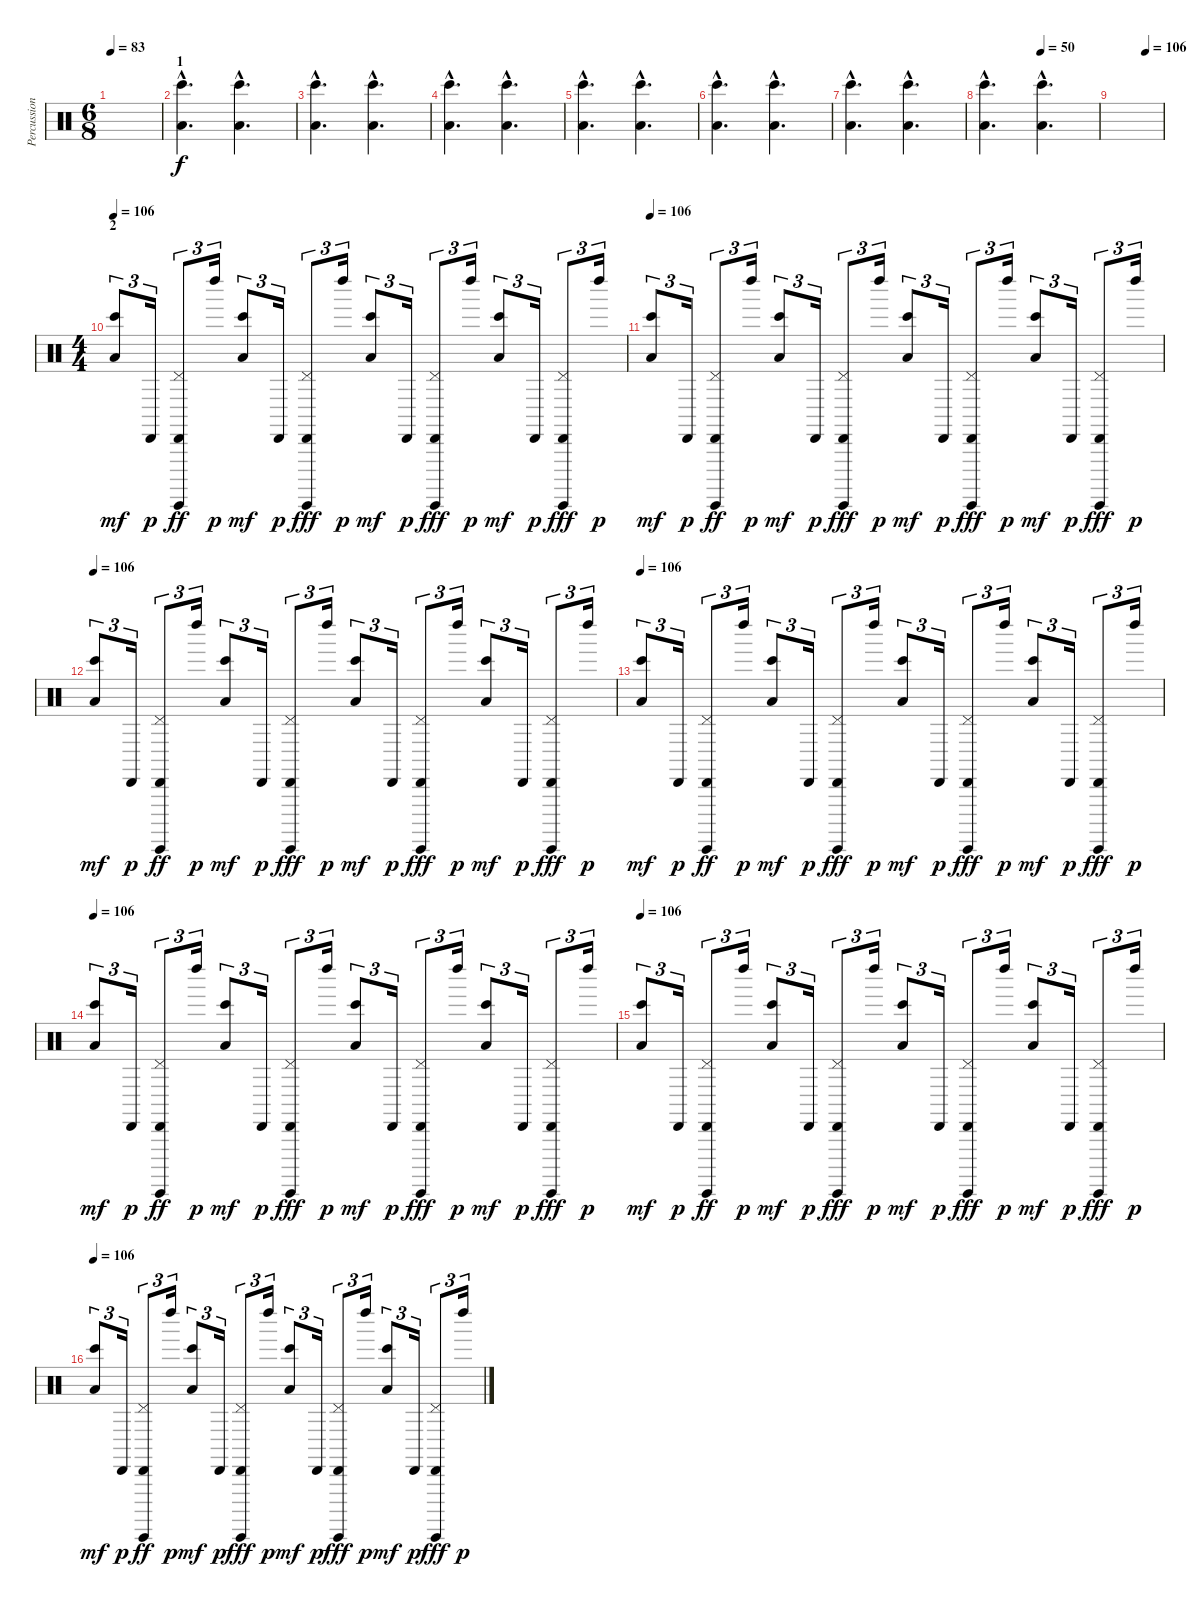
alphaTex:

\track ("Percussions" "Percussion") {instrument percussion}
\staff {score}
\articulation defaults
\ts (6 8)
\tempo 83
\clef neutral
\ks c
|
\section ("" "1")
("Bongo High (hit)"{hac} "Low Floor Tom (hit)"{hac}).4{d} ("Bongo High (hit)"{hac} "Low Floor Tom (hit)"{hac}).4{d} |
("Bongo High (hit)"{hac} "Low Floor Tom (hit)"{hac}).4{d} ("Bongo High (hit)"{hac} "Low Floor Tom (hit)"{hac}).4{d} |
("Bongo High (hit)"{hac} "Low Floor Tom (hit)"{hac}).4{d} ("Bongo High (hit)"{hac} "Low Floor Tom (hit)"{hac}).4{d} |
("Bongo High (hit)"{hac} "Low Floor Tom (hit)"{hac}).4{d} ("Bongo High (hit)"{hac} "Low Floor Tom (hit)"{hac}).4{d} |
("Bongo High (hit)"{hac} "Low Floor Tom (hit)"{hac}).4{d} ("Bongo High (hit)"{hac} "Low Floor Tom (hit)"{hac}).4{d} |
("Bongo High (hit)"{hac} "Low Floor Tom (hit)"{hac}).4{d} ("Bongo High (hit)"{hac} "Low Floor Tom (hit)"{hac}).4{d} |
\tempo (50 0.5)
("Bongo High (hit)"{hac} "Low Floor Tom (hit)"{hac}).4{d} ("Bongo High (hit)"{hac} "Low Floor Tom (hit)"{hac}).4{d} |
\tempo (106 0.6666666666666666)
|
\ts (4 4)
\section ("" "2")
\tempo 106
("Bongo High (hit)" "Low Floor Tom (hit)").8{tu (3 2) dy mf} "Cabasa (hit)".16{tu (3 2) dy p} ("Pedal Hi-Hat (hit)" "Cabasa (hit)" "Guiro (hit)").8{tu (3 2) dy ff} "Left Maraca (hit)".16{tu (3 2) dy p} ("Bongo High (hit)" "Low Floor Tom (hit)").8{tu (3 2) dy mf} "Cabasa (hit)".16{tu (3 2) dy p} ("Pedal Hi-Hat (hit)" "Cabasa (hit)" "Guiro (hit)").8{tu (3 2) dy fff} "Left Maraca (hit)".16{tu (3 2) dy p} ("Bongo High (hit)" "Low Floor Tom (hit)").8{tu (3 2) dy mf} "Cabasa (hit)".16{tu (3 2) dy p} ("Pedal Hi-Hat (hit)" "Cabasa (hit)" "Guiro (hit)").8{tu (3 2) dy fff} "Left Maraca (hit)".16{tu (3 2) dy p} ("Bongo High (hit)" "Low Floor Tom (hit)").8{tu (3 2) dy mf} "Cabasa (hit)".16{tu (3 2) dy p} ("Pedal Hi-Hat (hit)" "Cabasa (hit)" "Guiro (hit)").8{tu (3 2) dy fff} "Left Maraca (hit)".16{tu (3 2) dy p} |
\tempo 106
("Bongo High (hit)" "Low Floor Tom (hit)").8{tu (3 2) dy mf} "Cabasa (hit)".16{tu (3 2) dy p} ("Pedal Hi-Hat (hit)" "Cabasa (hit)" "Guiro (hit)").8{tu (3 2) dy ff} "Left Maraca (hit)".16{tu (3 2) dy p} ("Bongo High (hit)" "Low Floor Tom (hit)").8{tu (3 2) dy mf} "Cabasa (hit)".16{tu (3 2) dy p} ("Pedal Hi-Hat (hit)" "Cabasa (hit)" "Guiro (hit)").8{tu (3 2) dy fff} "Left Maraca (hit)".16{tu (3 2) dy p} ("Bongo High (hit)" "Low Floor Tom (hit)").8{tu (3 2) dy mf} "Cabasa (hit)".16{tu (3 2) dy p} ("Pedal Hi-Hat (hit)" "Cabasa (hit)" "Guiro (hit)").8{tu (3 2) dy fff} "Left Maraca (hit)".16{tu (3 2) dy p} ("Bongo High (hit)" "Low Floor Tom (hit)").8{tu (3 2) dy mf} "Cabasa (hit)".16{tu (3 2) dy p} ("Pedal Hi-Hat (hit)" "Cabasa (hit)" "Guiro (hit)").8{tu (3 2) dy fff} "Left Maraca (hit)".16{tu (3 2) dy p} |
\tempo 106
("Bongo High (hit)" "Low Floor Tom (hit)").8{tu (3 2) dy mf} "Cabasa (hit)".16{tu (3 2) dy p} ("Pedal Hi-Hat (hit)" "Cabasa (hit)" "Guiro (hit)").8{tu (3 2) dy ff} "Left Maraca (hit)".16{tu (3 2) dy p} ("Bongo High (hit)" "Low Floor Tom (hit)").8{tu (3 2) dy mf} "Cabasa (hit)".16{tu (3 2) dy p} ("Pedal Hi-Hat (hit)" "Cabasa (hit)" "Guiro (hit)").8{tu (3 2) dy fff} "Left Maraca (hit)".16{tu (3 2) dy p} ("Bongo High (hit)" "Low Floor Tom (hit)").8{tu (3 2) dy mf} "Cabasa (hit)".16{tu (3 2) dy p} ("Pedal Hi-Hat (hit)" "Cabasa (hit)" "Guiro (hit)").8{tu (3 2) dy fff} "Left Maraca (hit)".16{tu (3 2) dy p} ("Bongo High (hit)" "Low Floor Tom (hit)").8{tu (3 2) dy mf} "Cabasa (hit)".16{tu (3 2) dy p} ("Pedal Hi-Hat (hit)" "Cabasa (hit)" "Guiro (hit)").8{tu (3 2) dy fff} "Left Maraca (hit)".16{tu (3 2) dy p} |
\tempo 106
("Bongo High (hit)" "Low Floor Tom (hit)").8{tu (3 2) dy mf} "Cabasa (hit)".16{tu (3 2) dy p} ("Pedal Hi-Hat (hit)" "Cabasa (hit)" "Guiro (hit)").8{tu (3 2) dy ff} "Left Maraca (hit)".16{tu (3 2) dy p} ("Bongo High (hit)" "Low Floor Tom (hit)").8{tu (3 2) dy mf} "Cabasa (hit)".16{tu (3 2) dy p} ("Pedal Hi-Hat (hit)" "Cabasa (hit)" "Guiro (hit)").8{tu (3 2) dy fff} "Left Maraca (hit)".16{tu (3 2) dy p} ("Bongo High (hit)" "Low Floor Tom (hit)").8{tu (3 2) dy mf} "Cabasa (hit)".16{tu (3 2) dy p} ("Pedal Hi-Hat (hit)" "Cabasa (hit)" "Guiro (hit)").8{tu (3 2) dy fff} "Left Maraca (hit)".16{tu (3 2) dy p} ("Bongo High (hit)" "Low Floor Tom (hit)").8{tu (3 2) dy mf} "Cabasa (hit)".16{tu (3 2) dy p} ("Pedal Hi-Hat (hit)" "Cabasa (hit)" "Guiro (hit)").8{tu (3 2) dy fff} "Left Maraca (hit)".16{tu (3 2) dy p} |
\tempo 106
("Bongo High (hit)" "Low Floor Tom (hit)").8{tu (3 2) dy mf} "Cabasa (hit)".16{tu (3 2) dy p} ("Pedal Hi-Hat (hit)" "Cabasa (hit)" "Guiro (hit)").8{tu (3 2) dy ff} "Left Maraca (hit)".16{tu (3 2) dy p} ("Bongo High (hit)" "Low Floor Tom (hit)").8{tu (3 2) dy mf} "Cabasa (hit)".16{tu (3 2) dy p} ("Pedal Hi-Hat (hit)" "Cabasa (hit)" "Guiro (hit)").8{tu (3 2) dy fff} "Left Maraca (hit)".16{tu (3 2) dy p} ("Bongo High (hit)" "Low Floor Tom (hit)").8{tu (3 2) dy mf} "Cabasa (hit)".16{tu (3 2) dy p} ("Pedal Hi-Hat (hit)" "Cabasa (hit)" "Guiro (hit)").8{tu (3 2) dy fff} "Left Maraca (hit)".16{tu (3 2) dy p} ("Bongo High (hit)" "Low Floor Tom (hit)").8{tu (3 2) dy mf} "Cabasa (hit)".16{tu (3 2) dy p} ("Pedal Hi-Hat (hit)" "Cabasa (hit)" "Guiro (hit)").8{tu (3 2) dy fff} "Left Maraca (hit)".16{tu (3 2) dy p} |
\tempo 106
("Bongo High (hit)" "Low Floor Tom (hit)").8{tu (3 2) dy mf} "Cabasa (hit)".16{tu (3 2) dy p} ("Pedal Hi-Hat (hit)" "Cabasa (hit)" "Guiro (hit)").8{tu (3 2) dy ff} "Left Maraca (hit)".16{tu (3 2) dy p} ("Bongo High (hit)" "Low Floor Tom (hit)").8{tu (3 2) dy mf} "Cabasa (hit)".16{tu (3 2) dy p} ("Pedal Hi-Hat (hit)" "Cabasa (hit)" "Guiro (hit)").8{tu (3 2) dy fff} "Left Maraca (hit)".16{tu (3 2) dy p} ("Bongo High (hit)" "Low Floor Tom (hit)").8{tu (3 2) dy mf} "Cabasa (hit)".16{tu (3 2) dy p} ("Pedal Hi-Hat (hit)" "Cabasa (hit)" "Guiro (hit)").8{tu (3 2) dy fff} "Left Maraca (hit)".16{tu (3 2) dy p} ("Bongo High (hit)" "Low Floor Tom (hit)").8{tu (3 2) dy mf} "Cabasa (hit)".16{tu (3 2) dy p} ("Pedal Hi-Hat (hit)" "Cabasa (hit)" "Guiro (hit)").8{tu (3 2) dy fff} "Left Maraca (hit)".16{tu (3 2) dy p} |
\tempo 106
("Bongo High (hit)" "Low Floor Tom (hit)").8{tu (3 2) dy mf} "Cabasa (hit)".16{tu (3 2) dy p} ("Pedal Hi-Hat (hit)" "Cabasa (hit)" "Guiro (hit)").8{tu (3 2) dy ff} "Left Maraca (hit)".16{tu (3 2) dy p} ("Bongo High (hit)" "Low Floor Tom (hit)").8{tu (3 2) dy mf} "Cabasa (hit)".16{tu (3 2) dy p} ("Pedal Hi-Hat (hit)" "Cabasa (hit)" "Guiro (hit)").8{tu (3 2) dy fff} "Left Maraca (hit)".16{tu (3 2) dy p} ("Bongo High (hit)" "Low Floor Tom (hit)").8{tu (3 2) dy mf} "Cabasa (hit)".16{tu (3 2) dy p} ("Pedal Hi-Hat (hit)" "Cabasa (hit)" "Guiro (hit)").8{tu (3 2) dy fff} "Left Maraca (hit)".16{tu (3 2) dy p} ("Bongo High (hit)" "Low Floor Tom (hit)").8{tu (3 2) dy mf} "Cabasa (hit)".16{tu (3 2) dy p} ("Pedal Hi-Hat (hit)" "Cabasa (hit)" "Guiro (hit)").8{tu (3 2) dy fff} "Left Maraca (hit)".16{tu (3 2) dy p}
